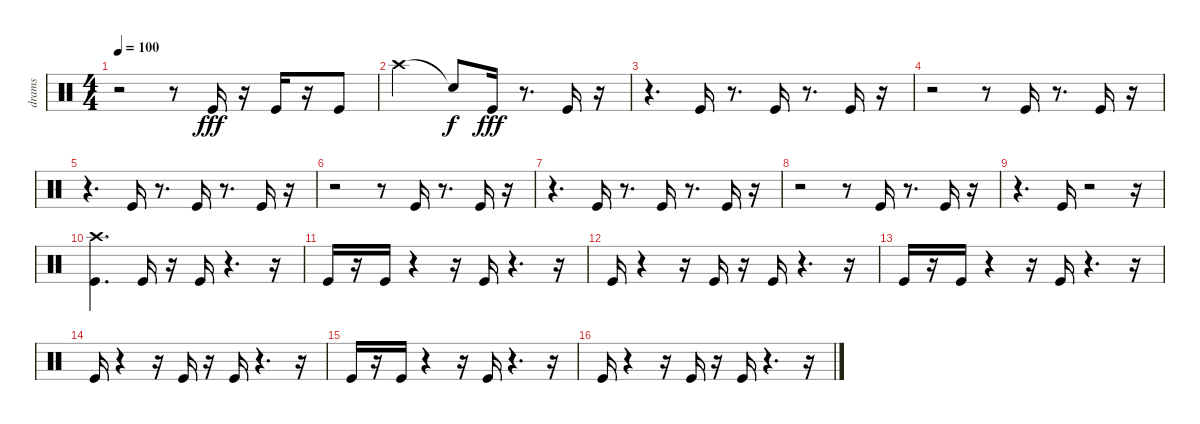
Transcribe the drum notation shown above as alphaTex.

\track ("drams" "drams") {instrument percussion}
\staff {score}
\articulation defaults
\ts (4 4)
\tempo 100
\clef neutral
\ks c
r.2{dy fff} r.8 "Kick (hit)".16 r.16 "Kick (hit)".16 r.16 "Kick (hit)".8 |
"Crash high (hit)".2 "Snare (hit)"{t}.8{dy f} "Kick (hit)".16{dy fff} r.8{d} "Kick (hit)".16 r.16 |
r.4{d} "Kick (hit)".16 r.8{d} "Kick (hit)".16 r.8{d} "Kick (hit)".16 r.16 |
r.2 r.8 "Kick (hit)".16 r.8{d} "Kick (hit)".16 r.16 |
r.4{d} "Kick (hit)".16 r.8{d} "Kick (hit)".16 r.8{d} "Kick (hit)".16 r.16 |
r.2 r.8 "Kick (hit)".16 r.8{d} "Kick (hit)".16 r.16 |
r.4{d} "Kick (hit)".16 r.8{d} "Kick (hit)".16 r.8{d} "Kick (hit)".16 r.16 |
r.2 r.8 "Kick (hit)".16 r.8{d} "Kick (hit)".16 r.16 |
r.4{d} "Kick (hit)".16 r.2 r.16 |
("Kick (hit)" "Crash high (hit)").4{d} "Kick (hit)".16 r.16 "Kick (hit)".16 r.4{d} r.16 |
"Kick (hit)".16 r.16 "Kick (hit)".16 r.4 r.16 "Kick (hit)".16 r.4{d} r.16 |
"Kick (hit)".16 r.4 r.16 "Kick (hit)".16 r.16 "Kick (hit)".16 r.4{d} r.16 |
"Kick (hit)".16 r.16 "Kick (hit)".16 r.4 r.16 "Kick (hit)".16 r.4{d} r.16 |
"Kick (hit)".16 r.4 r.16 "Kick (hit)".16 r.16 "Kick (hit)".16 r.4{d} r.16 |
"Kick (hit)".16 r.16 "Kick (hit)".16 r.4 r.16 "Kick (hit)".16 r.4{d} r.16 |
"Kick (hit)".16 r.4 r.16 "Kick (hit)".16 r.16 "Kick (hit)".16 r.4{d} r.16
